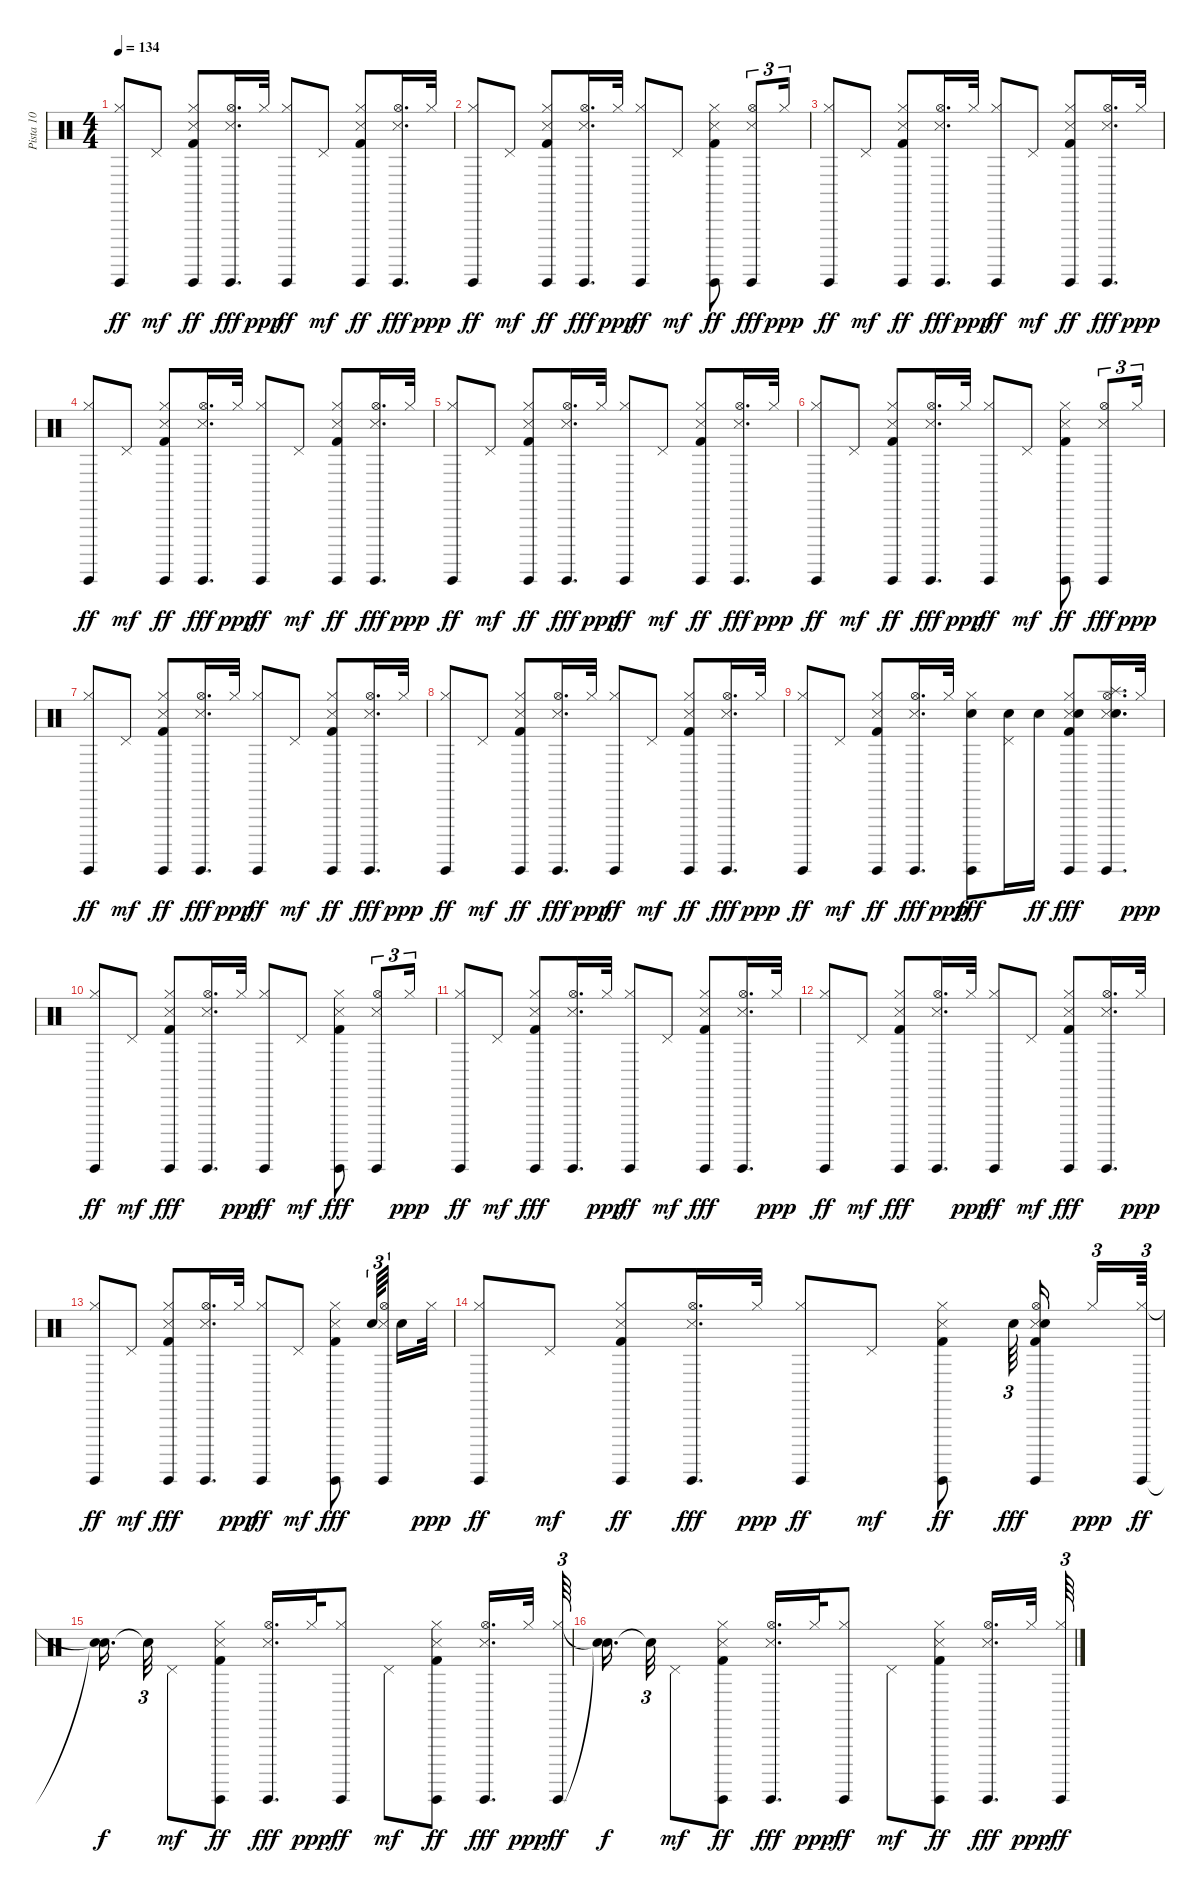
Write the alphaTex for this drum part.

\track ("Pista 10" "Pista 10") {instrument percussion}
\staff {score}
\articulation defaults
\ts (4 4)
\tempo 134
\clef neutral
\ks c
("Hi-Hat (closed)" "Guiro (hit)").8{dy ff} "Pedal Hi-Hat (hit)".8{dy mf} ("Hi-Hat (closed)" "Guiro (hit)" "Snare (side stick) 3" "Kick (hit) 2").8{dy ff} ("Hi-Hat (open)" "Guiro (hit)" "Snare (side stick) 3").16{d dy fff} "Hi-Hat (closed)".32{dy ppp} ("Hi-Hat (closed)" "Guiro (hit)").8{dy ff} "Pedal Hi-Hat (hit)".8{dy mf} ("Hi-Hat (closed)" "Guiro (hit)" "Snare (side stick) 3" "Kick (hit) 2").8{dy ff} ("Hi-Hat (open)" "Guiro (hit)" "Snare (side stick) 3").16{d dy fff} "Hi-Hat (closed)".32{dy ppp} |
("Hi-Hat (closed)" "Guiro (hit)").8{dy ff} "Pedal Hi-Hat (hit)".8{dy mf} ("Hi-Hat (closed)" "Guiro (hit)" "Snare (side stick) 3" "Kick (hit) 2").8{dy ff} ("Hi-Hat (open)" "Guiro (hit)" "Snare (side stick) 3").16{d dy fff} "Hi-Hat (closed)".32{dy ppp} ("Hi-Hat (closed)" "Guiro (hit)").8{dy ff} "Pedal Hi-Hat (hit)".8{dy mf} ("Hi-Hat (closed)" "Guiro (hit)" "Snare (side stick) 3" "Kick (hit) 2").8{dy ff} ("Hi-Hat (open)" "Guiro (hit)" "Snare (side stick) 3").8{tu (3 2) dy fff} "Hi-Hat (closed)".16{tu (3 2) dy ppp} |
("Hi-Hat (closed)" "Guiro (hit)").8{dy ff} "Pedal Hi-Hat (hit)".8{dy mf} ("Hi-Hat (closed)" "Guiro (hit)" "Snare (side stick) 3" "Kick (hit) 2").8{dy ff} ("Hi-Hat (open)" "Guiro (hit)" "Snare (side stick) 3").16{d dy fff} "Hi-Hat (closed)".32{dy ppp} ("Hi-Hat (closed)" "Guiro (hit)").8{dy ff} "Pedal Hi-Hat (hit)".8{dy mf} ("Hi-Hat (closed)" "Guiro (hit)" "Snare (side stick) 3" "Kick (hit) 2").8{dy ff} ("Hi-Hat (open)" "Guiro (hit)" "Snare (side stick) 3").16{d dy fff} "Hi-Hat (closed)".32{dy ppp} |
("Hi-Hat (closed)" "Guiro (hit)").8{dy ff} "Pedal Hi-Hat (hit)".8{dy mf} ("Hi-Hat (closed)" "Guiro (hit)" "Snare (side stick) 3" "Kick (hit) 2").8{dy ff} ("Hi-Hat (open)" "Guiro (hit)" "Snare (side stick) 3").16{d dy fff} "Hi-Hat (closed)".32{dy ppp} ("Hi-Hat (closed)" "Guiro (hit)").8{dy ff} "Pedal Hi-Hat (hit)".8{dy mf} ("Hi-Hat (closed)" "Guiro (hit)" "Snare (side stick) 3" "Kick (hit) 2").8{dy ff} ("Hi-Hat (open)" "Guiro (hit)" "Snare (side stick) 3").16{d dy fff} "Hi-Hat (closed)".32{dy ppp} |
("Hi-Hat (closed)" "Guiro (hit)").8{dy ff} "Pedal Hi-Hat (hit)".8{dy mf} ("Hi-Hat (closed)" "Guiro (hit)" "Snare (side stick) 3" "Kick (hit) 2").8{dy ff} ("Hi-Hat (open)" "Guiro (hit)" "Snare (side stick) 3").16{d dy fff} "Hi-Hat (closed)".32{dy ppp} ("Hi-Hat (closed)" "Guiro (hit)").8{dy ff} "Pedal Hi-Hat (hit)".8{dy mf} ("Hi-Hat (closed)" "Guiro (hit)" "Snare (side stick) 3" "Kick (hit) 2").8{dy ff} ("Hi-Hat (open)" "Guiro (hit)" "Snare (side stick) 3").16{d dy fff} "Hi-Hat (closed)".32{dy ppp} |
("Hi-Hat (closed)" "Guiro (hit)").8{dy ff} "Pedal Hi-Hat (hit)".8{dy mf} ("Hi-Hat (closed)" "Guiro (hit)" "Snare (side stick) 3" "Kick (hit) 2").8{dy ff} ("Hi-Hat (open)" "Guiro (hit)" "Snare (side stick) 3").16{d dy fff} "Hi-Hat (closed)".32{dy ppp} ("Hi-Hat (closed)" "Guiro (hit)").8{dy ff} "Pedal Hi-Hat (hit)".8{dy mf} ("Hi-Hat (closed)" "Guiro (hit)" "Snare (side stick) 3" "Kick (hit) 2").8{dy ff} ("Hi-Hat (open)" "Guiro (hit)" "Snare (side stick) 3").8{tu (3 2) dy fff} "Hi-Hat (closed)".16{tu (3 2) dy ppp} |
("Hi-Hat (closed)" "Guiro (hit)").8{dy ff} "Pedal Hi-Hat (hit)".8{dy mf} ("Hi-Hat (closed)" "Guiro (hit)" "Snare (side stick) 3" "Kick (hit) 2").8{dy ff} ("Hi-Hat (open)" "Guiro (hit)" "Snare (side stick) 3").16{d dy fff} "Hi-Hat (closed)".32{dy ppp} ("Hi-Hat (closed)" "Guiro (hit)").8{dy ff} "Pedal Hi-Hat (hit)".8{dy mf} ("Hi-Hat (closed)" "Guiro (hit)" "Snare (side stick) 3" "Kick (hit) 2").8{dy ff} ("Hi-Hat (open)" "Guiro (hit)" "Snare (side stick) 3").16{d dy fff} "Hi-Hat (closed)".32{dy ppp} |
("Hi-Hat (closed)" "Guiro (hit)").8{dy ff} "Pedal Hi-Hat (hit)".8{dy mf} ("Hi-Hat (closed)" "Guiro (hit)" "Snare (side stick) 3" "Kick (hit) 2").8{dy ff} ("Hi-Hat (open)" "Guiro (hit)" "Snare (side stick) 3").16{d dy fff} "Hi-Hat (closed)".32{dy ppp} ("Hi-Hat (closed)" "Guiro (hit)").8{dy ff} "Pedal Hi-Hat (hit)".8{dy mf} ("Hi-Hat (closed)" "Guiro (hit)" "Snare (side stick) 3" "Kick (hit) 2").8{dy ff} ("Hi-Hat (open)" "Guiro (hit)" "Snare (side stick) 3").16{d dy fff} "Hi-Hat (closed)".32{dy ppp} |
("Hi-Hat (closed)" "Guiro (hit)").8{dy ff} "Pedal Hi-Hat (hit)".8{dy mf} ("Hi-Hat (closed)" "Guiro (hit)" "Snare (side stick) 3" "Kick (hit) 2").8{dy ff} ("Hi-Hat (open)" "Guiro (hit)" "Snare (side stick) 3").16{d dy fff} "Hi-Hat (closed)".32{dy ppp} ("Hi-Hat (closed)" "Guiro (hit)" "Electric Snare (hit)").8{dy fff} ("Pedal Hi-Hat (hit)" "Snare (hit) 2").16 "Snare (hit) 2".16{dy ff} ("Hi-Hat (closed)" "Guiro (hit)" "Snare (side stick) 3" "Kick (hit) 2" "Electric Snare (hit)").8{dy fff} ("Hi-Hat (open)" "Guiro (hit)" "Snare (side stick) 3" "Splash (hit)" "Snare (hit) 2").16{d} "Hi-Hat (closed)".32{dy ppp} |
("Guiro (hit)" "Hi-Hat (closed)").8{dy ff} "Pedal Hi-Hat (hit)".8{dy mf} ("Guiro (hit)" "Hi-Hat (closed)" "Kick (hit) 2" "Snare (side stick) 3").8{dy fff} ("Guiro (hit)" "Hi-Hat (open)" "Snare (side stick) 3").16{d} "Hi-Hat (closed)".32{dy ppp} ("Guiro (hit)" "Hi-Hat (closed)").8{dy ff} "Pedal Hi-Hat (hit)".8{dy mf} ("Guiro (hit)" "Hi-Hat (closed)" "Kick (hit) 2" "Snare (side stick) 3").8{dy fff} ("Guiro (hit)" "Hi-Hat (open)" "Snare (side stick) 3").8{tu (3 2)} "Hi-Hat (closed)".16{tu (3 2) dy ppp} |
("Guiro (hit)" "Hi-Hat (closed)").8{dy ff} "Pedal Hi-Hat (hit)".8{dy mf} ("Guiro (hit)" "Hi-Hat (closed)" "Kick (hit) 2" "Snare (side stick) 3").8{dy fff} ("Guiro (hit)" "Hi-Hat (open)" "Snare (side stick) 3").16{d} "Hi-Hat (closed)".32{dy ppp} ("Guiro (hit)" "Hi-Hat (closed)").8{dy ff} "Pedal Hi-Hat (hit)".8{dy mf} ("Guiro (hit)" "Hi-Hat (closed)" "Kick (hit) 2" "Snare (side stick) 3").8{dy fff} ("Guiro (hit)" "Hi-Hat (open)" "Snare (side stick) 3").16{d} "Hi-Hat (closed)".32{dy ppp} |
("Guiro (hit)" "Hi-Hat (closed)").8{dy ff} "Pedal Hi-Hat (hit)".8{dy mf} ("Guiro (hit)" "Hi-Hat (closed)" "Kick (hit) 2" "Snare (side stick) 3").8{dy fff} ("Guiro (hit)" "Hi-Hat (open)" "Snare (side stick) 3").16{d} "Hi-Hat (closed)".32{dy ppp} ("Guiro (hit)" "Hi-Hat (closed)").8{dy ff} "Pedal Hi-Hat (hit)".8{dy mf} ("Guiro (hit)" "Hi-Hat (closed)" "Kick (hit) 2" "Snare (side stick) 3").8{dy fff} ("Guiro (hit)" "Hi-Hat (open)" "Snare (side stick) 3").16{d} "Hi-Hat (closed)".32{dy ppp} |
("Guiro (hit)" "Hi-Hat (closed)").8{dy ff} "Pedal Hi-Hat (hit)".8{dy mf} ("Guiro (hit)" "Hi-Hat (closed)" "Kick (hit) 2" "Snare (side stick) 3").8{dy fff} ("Guiro (hit)" "Hi-Hat (open)" "Snare (side stick) 3").16{d} "Hi-Hat (closed)".32{dy ppp} ("Guiro (hit)" "Hi-Hat (closed)").8{dy ff} "Pedal Hi-Hat (hit)".8{dy mf} ("Guiro (hit)" "Hi-Hat (closed)" "Kick (hit) 2" "Snare (side stick) 3").8{dy fff} "Electric Snare (hit)".64{tu (3 2)} ("Guiro (hit)" "Hi-Hat (open)" "Snare (side stick) 3").32{tu (3 2) beam splitsecondary} "Snare (hit) 2".16 "Hi-Hat (closed)".32{dy ppp} |
("Hi-Hat (closed)" "Guiro (hit)").8{dy ff} "Pedal Hi-Hat (hit)".8{dy mf} ("Hi-Hat (closed)" "Guiro (hit)" "Snare (side stick) 3" "Kick (hit) 2").8{dy ff} ("Hi-Hat (open)" "Guiro (hit)" "Snare (side stick) 3").16{d dy fff} "Hi-Hat (closed)".32{dy ppp} ("Hi-Hat (closed)" "Guiro (hit)").8{dy ff} "Pedal Hi-Hat (hit)".8{dy mf} ("Hi-Hat (closed)" "Guiro (hit)" "Snare (side stick) 3" "Kick (hit) 2").8{dy ff} "Electric Snare (hit)".64{tu (3 2) dy fff beam splitsecondary} ("Kick (hit) 2" "Hi-Hat (open)" "Guiro (hit)" "Snare (side stick) 3" "Snare (hit) 2").16{beam splitsecondary} "Hi-Hat (closed)".16{tu (3 2) dy ppp} ("Hi-Hat (closed)" "Guiro (hit)").64{tu (3 2) dy ff} |
("Snare (hit)"{t} "Snare (hit)"{t}).16{d dy f beam splitsecondary} "Snare (hit)"{t}.32{tu (3 2)} "Pedal Hi-Hat (hit)".8{dy mf} ("Hi-Hat (closed)" "Guiro (hit)" "Snare (side stick) 3" "Kick (hit) 2").8{dy ff} ("Hi-Hat (open)" "Guiro (hit)" "Snare (side stick) 3").16{d dy fff} "Hi-Hat (closed)".32{dy ppp} ("Hi-Hat (closed)" "Guiro (hit)").8{dy ff} "Pedal Hi-Hat (hit)".8{dy mf} ("Hi-Hat (closed)" "Guiro (hit)" "Snare (side stick) 3" "Kick (hit) 2").8{dy ff} ("Hi-Hat (open)" "Guiro (hit)" "Snare (side stick) 3").16{d dy fff} "Hi-Hat (closed)".32{dy ppp} ("Hi-Hat (closed)" "Guiro (hit)").64{tu (3 2) dy ff} |
("Snare (hit)"{t} "Snare (hit)"{t}).16{d dy f beam splitsecondary} "Snare (hit)"{t}.32{tu (3 2)} "Pedal Hi-Hat (hit)".8{dy mf} ("Hi-Hat (closed)" "Guiro (hit)" "Snare (side stick) 3" "Kick (hit) 2").8{dy ff} ("Hi-Hat (open)" "Guiro (hit)" "Snare (side stick) 3").16{d dy fff} "Hi-Hat (closed)".32{dy ppp} ("Hi-Hat (closed)" "Guiro (hit)").8{dy ff} "Pedal Hi-Hat (hit)".8{dy mf} ("Hi-Hat (closed)" "Guiro (hit)" "Snare (side stick) 3" "Kick (hit) 2").8{dy ff} ("Hi-Hat (open)" "Guiro (hit)" "Snare (side stick) 3").16{d dy fff} "Hi-Hat (closed)".32{dy ppp} ("Hi-Hat (closed)" "Guiro (hit)").64{tu (3 2) dy ff}
